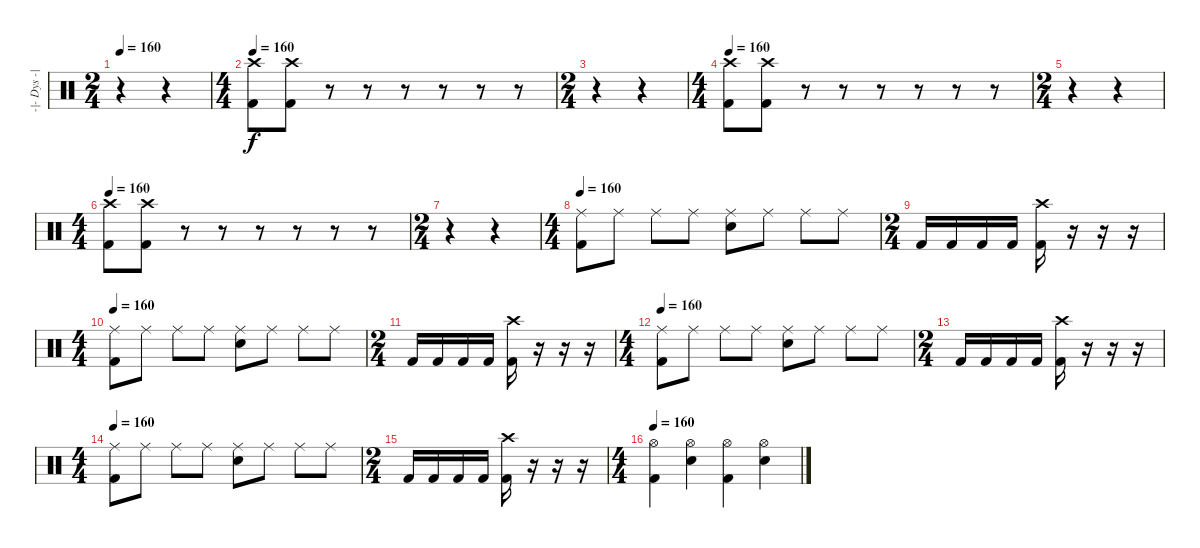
\track ("-|- Dys -|-" "-|- Dys -|") {instrument percussion}
\staff {score}
\articulation defaults
\ts (2 4)
\tempo 160
\clef neutral
\ks c
r.4{dy f} r.4 |
\ts (4 4)
\tempo 160
("Crash high (hit)" "Kick (hit) 2").8 ("Crash high (hit)" "Kick (hit) 2").8 r.8 r.8 r.8 r.8 r.8 r.8 |
\ts (2 4)
r.4 r.4 |
\ts (4 4)
\tempo 160
("Crash high (hit)" "Kick (hit) 2").8 ("Crash high (hit)" "Kick (hit) 2").8 r.8 r.8 r.8 r.8 r.8 r.8 |
\ts (2 4)
r.4 r.4 |
\ts (4 4)
\tempo 160
("Crash high (hit)" "Kick (hit) 2").8 ("Crash high (hit)" "Kick (hit) 2").8 r.8 r.8 r.8 r.8 r.8 r.8 |
\ts (2 4)
r.4 r.4 |
\ts (4 4)
\tempo 160
("Ride (middle)" "Kick (hit) 2").8 "Ride (middle)".8 "Ride (middle)".8 "Ride (middle)".8 ("Ride (middle)" "Snare (hit) 2").8 "Ride (middle)".8 "Ride (middle)".8 "Ride (middle)".8 |
\ts (2 4)
"Kick (hit) 2".16 "Kick (hit) 2".16 "Kick (hit) 2".16 "Kick (hit) 2".16 ("Crash high (hit)" "Kick (hit) 2").16 r.16 r.16 r.16 |
\ts (4 4)
\tempo 160
("Ride (middle)" "Kick (hit) 2").8 "Ride (middle)".8 "Ride (middle)".8 "Ride (middle)".8 ("Ride (middle)" "Snare (hit) 2").8 "Ride (middle)".8 "Ride (middle)".8 "Ride (middle)".8 |
\ts (2 4)
"Kick (hit) 2".16 "Kick (hit) 2".16 "Kick (hit) 2".16 "Kick (hit) 2".16 ("Crash high (hit)" "Kick (hit) 2").16 r.16 r.16 r.16 |
\ts (4 4)
\tempo 160
("Ride (middle)" "Kick (hit) 2").8 "Ride (middle)".8 "Ride (middle)".8 "Ride (middle)".8 ("Ride (middle)" "Snare (hit) 2").8 "Ride (middle)".8 "Ride (middle)".8 "Ride (middle)".8 |
\ts (2 4)
"Kick (hit) 2".16 "Kick (hit) 2".16 "Kick (hit) 2".16 "Kick (hit) 2".16 ("Crash high (hit)" "Kick (hit) 2").16 r.16 r.16 r.16 |
\ts (4 4)
\tempo 160
("Ride (middle)" "Kick (hit) 2").8 "Ride (middle)".8 "Ride (middle)".8 "Ride (middle)".8 ("Ride (middle)" "Snare (hit) 2").8 "Ride (middle)".8 "Ride (middle)".8 "Ride (middle)".8 |
\ts (2 4)
"Kick (hit) 2".16 "Kick (hit) 2".16 "Kick (hit) 2".16 "Kick (hit) 2".16 ("Crash high (hit)" "Kick (hit) 2").16 r.16 r.16 r.16 |
\ts (4 4)
\tempo 160
("Hi-Hat (open)" "Kick (hit) 2").4 ("Hi-Hat (open)" "Snare (hit) 2").4 ("Hi-Hat (open)" "Kick (hit) 2").4 ("Hi-Hat (open)" "Snare (hit) 2").4
